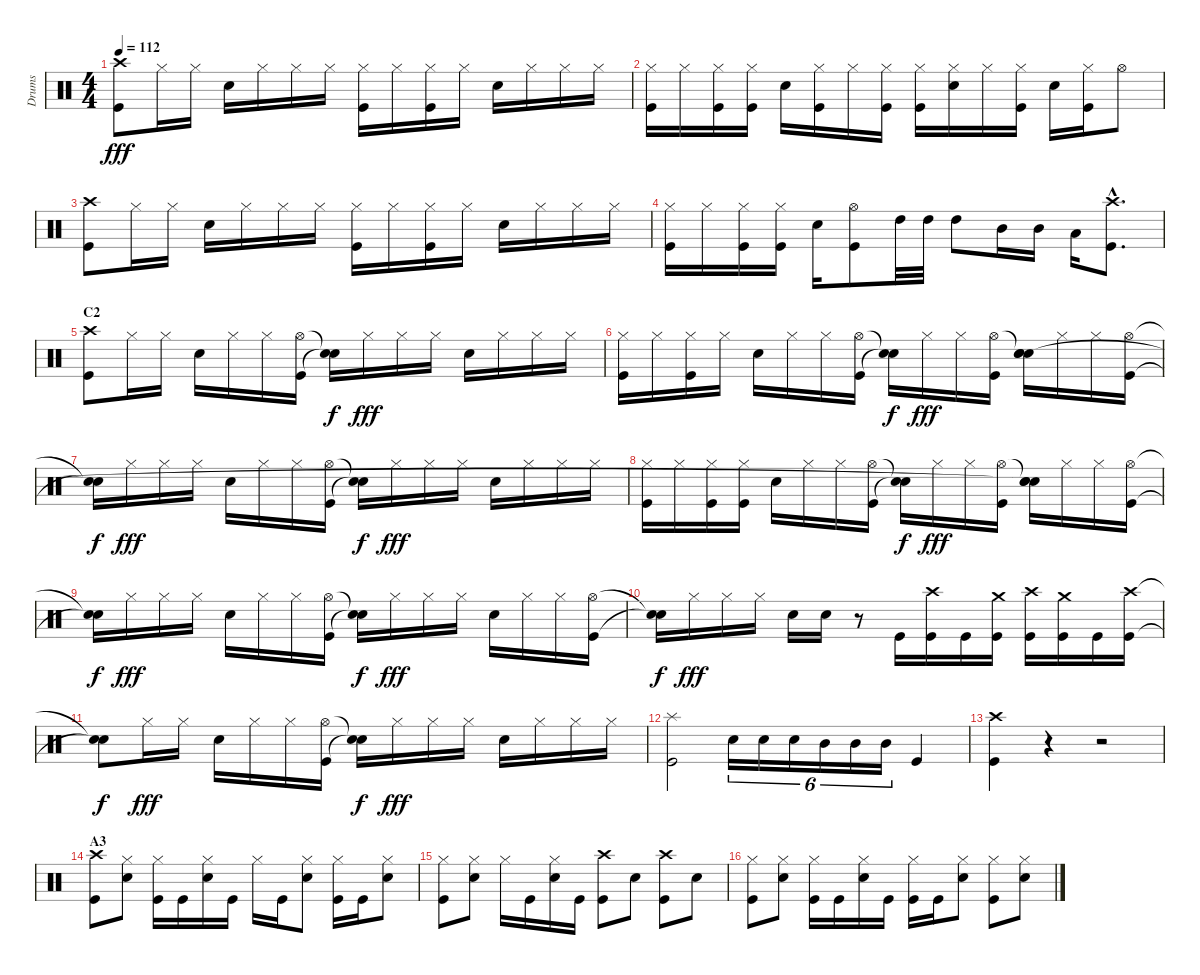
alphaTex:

\track ("Drums" "Drums") {instrument percussion}
\staff {score}
\articulation defaults
\ts (4 4)
\tempo 112
\clef neutral
\ks c
("Crash high (hit)" "Kick (hit)").8{dy fff} "Hi-Hat (closed)".16 "Hi-Hat (closed)".16 "Snare (hit) 2".16 "Hi-Hat (closed)".16 "Hi-Hat (closed)".16 "Hi-Hat (closed)".16 ("Hi-Hat (closed)" "Kick (hit)").16 "Hi-Hat (closed)".16 ("Hi-Hat (closed)" "Kick (hit)").16 "Hi-Hat (closed)".16 "Snare (hit) 2".16 "Hi-Hat (closed)".16 "Hi-Hat (closed)".16 "Hi-Hat (closed)".16 |
("Hi-Hat (closed)" "Kick (hit)").16 "Hi-Hat (closed)".16 ("Hi-Hat (closed)" "Kick (hit)").16 ("Hi-Hat (closed)" "Kick (hit)").16 "Snare (hit) 2".16 ("Hi-Hat (closed)" "Kick (hit)").16 "Hi-Hat (closed)".16 ("Hi-Hat (closed)" "Kick (hit)").16 ("Hi-Hat (closed)" "Kick (hit)").16 ("Hi-Hat (closed)" "Snare (hit) 2").16 "Hi-Hat (closed)".16 ("Hi-Hat (closed)" "Kick (hit)").16 "Snare (hit) 2".16 ("Hi-Hat (closed)" "Kick (hit)").16 "Hi-Hat (open)".8 |
("Crash high (hit)" "Kick (hit)").8 "Hi-Hat (closed)".16 "Hi-Hat (closed)".16 "Snare (hit) 2".16 "Hi-Hat (closed)".16 "Hi-Hat (closed)".16 "Hi-Hat (closed)".16 ("Hi-Hat (closed)" "Kick (hit)").16 "Hi-Hat (closed)".16 ("Hi-Hat (closed)" "Kick (hit)").16 "Hi-Hat (closed)".16 "Snare (hit) 2".16 "Hi-Hat (closed)".16 "Hi-Hat (closed)".16 "Hi-Hat (closed)".16 |
("Hi-Hat (closed)" "Kick (hit)").16 "Hi-Hat (closed)".16 ("Hi-Hat (closed)" "Kick (hit)").16 ("Hi-Hat (closed)" "Kick (hit)").16 "Snare (hit) 2".16 ("Hi-Hat (open)" "Kick (hit)").8 "High Tom (hit)".32 "High Tom (hit)".32 "High Tom (hit)".8 "Mid Tom (hit)".16 "Mid Tom (hit)".16 "Low Tom (hit)".16 ("Crash high (hit)"{hac} "Kick (hit)"{hac}).8{d} |
\section ("" "C2")
("Crash high (hit)" "Kick (hit)").8 "Hi-Hat (closed)".16 "Hi-Hat (closed)".16 "Snare (hit) 2".16 "Hi-Hat (closed)".16 "Hi-Hat (closed)".16 ("Hi-Hat (open)" "Kick (hit)").16 ("Snare (hit)"{t} "Snare (hit)"{t}).16{dy f} "Hi-Hat (closed)".16{dy fff} "Hi-Hat (closed)".16 "Hi-Hat (closed)".16 "Snare (hit) 2".16 "Hi-Hat (closed)".16 "Hi-Hat (closed)".16 "Hi-Hat (closed)".16 |
("Hi-Hat (closed)" "Kick (hit)").16 "Hi-Hat (closed)".16 ("Hi-Hat (closed)" "Kick (hit)").16 "Hi-Hat (closed)".16 "Snare (hit) 2".16 "Hi-Hat (closed)".16 "Hi-Hat (closed)".16 ("Hi-Hat (open)" "Kick (hit)").16 ("Snare (hit)"{t} "Snare (hit)"{t}).16{dy f} "Hi-Hat (closed)".16{dy fff} "Hi-Hat (closed)".16 ("Hi-Hat (open)" "Kick (hit)").16 ("Snare (hit)"{t} "Snare (hit) 2" "Snare (hit)").16 "Hi-Hat (closed)".16 "Hi-Hat (closed)".16 ("Hi-Hat (open)" "Kick (hit)").16 |
("Snare (hit)"{t} "Snare (hit)"{t}).16{dy f} "Hi-Hat (closed)".16{dy fff} "Hi-Hat (closed)".16 "Hi-Hat (closed)".16 "Snare (hit) 2".16 "Hi-Hat (closed)".16 "Hi-Hat (closed)".16 ("Hi-Hat (open)" "Kick (hit)").16 ("Snare (hit)"{t} "Snare (hit)"{t}).16{dy f} "Hi-Hat (closed)".16{dy fff} "Hi-Hat (closed)".16 "Hi-Hat (closed)".16 "Snare (hit) 2".16 "Hi-Hat (closed)".16 "Hi-Hat (closed)".16 "Hi-Hat (closed)".16 |
("Hi-Hat (closed)" "Kick (hit)").16 "Hi-Hat (closed)".16 ("Hi-Hat (closed)" "Kick (hit)").16 ("Hi-Hat (closed)" "Kick (hit)").16 "Snare (hit) 2".16 "Hi-Hat (closed)".16 "Hi-Hat (closed)".16 ("Hi-Hat (open)" "Kick (hit)").16 ("Snare (hit)"{t} "Snare (hit)"{t}).16{dy f} "Hi-Hat (closed)".16{dy fff} "Hi-Hat (closed)".16 ("Hi-Hat (open)" "Kick (hit)").16 ("Snare (hit)"{t} "Snare (hit) 2" "Snare (hit)"{t}).16 "Hi-Hat (closed)".16 "Hi-Hat (closed)".16 ("Hi-Hat (open)" "Kick (hit)").16 |
("Snare (hit)"{t} "Snare (hit)"{t}).16{dy f} "Hi-Hat (closed)".16{dy fff} "Hi-Hat (closed)".16 "Hi-Hat (closed)".16 "Snare (hit) 2".16 "Hi-Hat (closed)".16 "Hi-Hat (closed)".16 ("Hi-Hat (open)" "Kick (hit)").16 ("Snare (hit)"{t} "Snare (hit)"{t}).16{dy f} "Hi-Hat (closed)".16{dy fff} "Hi-Hat (closed)".16 "Hi-Hat (closed)".16 "Snare (hit) 2".16 "Hi-Hat (closed)".16 "Hi-Hat (closed)".16 ("Hi-Hat (open)" "Kick (hit)").16 |
("Snare (hit)"{t} "Snare (hit)"{t}).16{dy f} "Hi-Hat (closed)".16{dy fff} "Hi-Hat (closed)".16 "Hi-Hat (closed)".16 "Snare (hit) 2".16 "Snare (hit) 2".16 r.8 "Kick (hit)".16 ("Crash high (hit)" "Kick (hit)").16 "Kick (hit)".16 ("Crash medium (hit)" "Kick (hit)").16 ("Crash high (hit)" "Kick (hit)").16 ("Crash medium (hit)" "Kick (hit)").16 "Kick (hit)".16 ("Crash high (hit)" "Kick (hit)").16 |
("Snare (hit)"{t} "Snare (hit)"{t}).8{dy f} "Hi-Hat (closed)".16{dy fff} "Hi-Hat (closed)".16 "Snare (hit) 2".16 "Hi-Hat (closed)".16 "Hi-Hat (closed)".16 ("Hi-Hat (open)" "Kick (hit)").16 ("Snare (hit)"{t} "Snare (hit)"{t}).16{dy f} "Hi-Hat (closed)".16{dy fff} "Hi-Hat (closed)".16 "Hi-Hat (closed)".16 "Snare (hit) 2".16 "Hi-Hat (closed)".16 "Hi-Hat (closed)".16 "Hi-Hat (closed)".16 |
("Splash (hit)" "Kick (hit)").2 "Snare (hit) 2".16{tu (6 4)} "Snare (hit) 2".16{tu (6 4)} "Snare (hit) 2".16{tu (6 4)} "Mid Tom (hit)".16{tu (6 4)} "Mid Tom (hit)".16{tu (6 4)} "Mid Tom (hit)".16{tu (6 4)} "Kick (hit)".4 |
("Crash high (hit)" "Kick (hit)").4 r.4 r.2 |
\section ("" "A3")
("Crash high (hit)" "Kick (hit)").8 ("Hi-Hat (closed)" "Snare (hit) 2").8 ("Hi-Hat (closed)" "Kick (hit)").16 "Kick (hit)".16 ("Hi-Hat (closed)" "Snare (hit) 2").16 "Kick (hit)".16 "Hi-Hat (closed)".16 "Kick (hit)".16 ("Hi-Hat (closed)" "Snare (hit) 2").8 ("Hi-Hat (closed)" "Kick (hit)").16 "Kick (hit)".16 ("Hi-Hat (closed)" "Snare (hit) 2").8 |
("Hi-Hat (closed)" "Kick (hit)").8 ("Hi-Hat (closed)" "Snare (hit) 2").8 "Hi-Hat (closed)".16 "Kick (hit)".16 ("Hi-Hat (closed)" "Snare (hit) 2").16 "Kick (hit)".16 ("Crash high (hit)" "Kick (hit)").8 "Snare (hit) 2".8 ("Crash high (hit)" "Kick (hit)").8 "Snare (hit) 2".8 |
("Hi-Hat (closed)" "Kick (hit)").8 ("Hi-Hat (closed)" "Snare (hit) 2").8 ("Hi-Hat (closed)" "Kick (hit)").16 "Kick (hit)".16 ("Hi-Hat (closed)" "Snare (hit) 2").16 "Kick (hit)".16 ("Hi-Hat (closed)" "Kick (hit)").16 "Kick (hit)".16 ("Hi-Hat (closed)" "Snare (hit) 2").8 ("Hi-Hat (closed)" "Kick (hit)").8 ("Hi-Hat (closed)" "Snare (hit) 2").8
